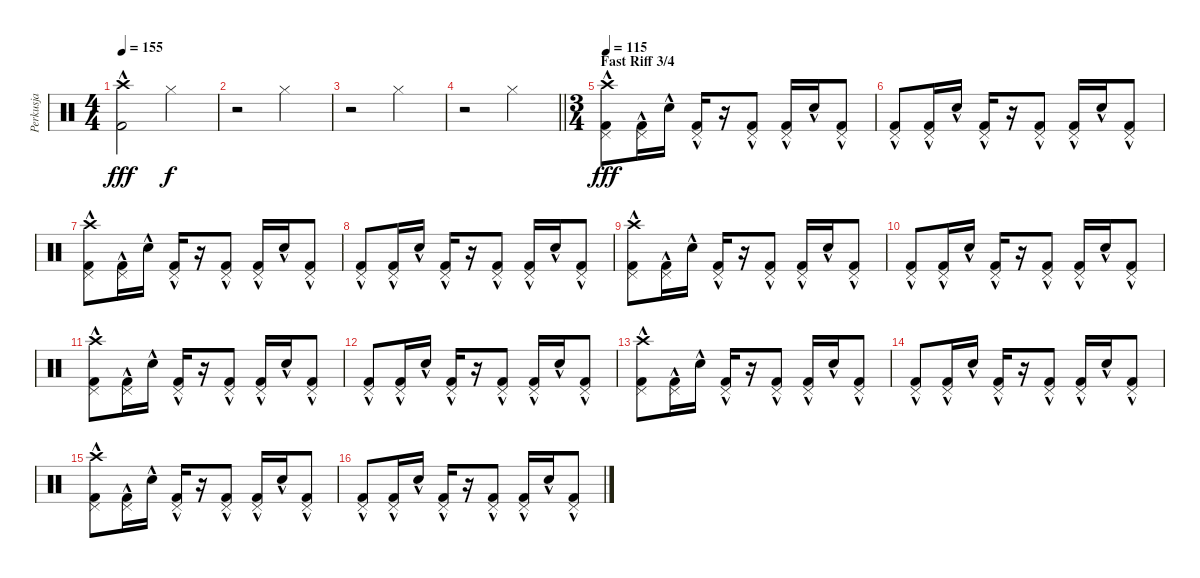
\track ("Perkusja" "Perkusja") {instrument percussion}
\staff {score}
\articulation defaults
\ts (4 4)
\tempo 155
\clef neutral
\ks c
("Crash high (hit)" "Kick (hit) 2"{hac}).2{dy fff} "Hi-Hat (closed)".2{dy f} |
r.2 "Hi-Hat (closed)".2 |
r.2 "Hi-Hat (closed)".2 |
\barLineRight lightlight
r.2 "Hi-Hat (closed)".2 |
\ts (3 4)
\section ("" "Fast Riff 3/4")
\tempo 115
("Crash high (hit)" "Pedal Hi-Hat (hit)" "Kick (hit) 2"{hac}).8{dy fff} ("Pedal Hi-Hat (hit)" "Kick (hit) 2"{hac}).16 "Electric Snare (hit)"{hac}.16 ("Pedal Hi-Hat (hit)" "Kick (hit) 2"{hac}).16 r.16 ("Pedal Hi-Hat (hit)" "Kick (hit) 2"{hac}).8 ("Pedal Hi-Hat (hit)" "Kick (hit) 2"{hac}).16 "Electric Snare (hit)"{hac}.16 ("Pedal Hi-Hat (hit)" "Kick (hit) 2"{hac}).8 |
("Pedal Hi-Hat (hit)" "Kick (hit) 2"{hac}).8 ("Pedal Hi-Hat (hit)" "Kick (hit) 2"{hac}).16 "Electric Snare (hit)"{hac}.16 ("Pedal Hi-Hat (hit)" "Kick (hit) 2"{hac}).16 r.16 ("Pedal Hi-Hat (hit)" "Kick (hit) 2"{hac}).8 ("Pedal Hi-Hat (hit)" "Kick (hit) 2"{hac}).16 "Electric Snare (hit)"{hac}.16 ("Pedal Hi-Hat (hit)" "Kick (hit) 2"{hac}).8 |
("Crash high (hit)" "Pedal Hi-Hat (hit)" "Kick (hit) 2"{hac}).8 ("Pedal Hi-Hat (hit)" "Kick (hit) 2"{hac}).16 "Electric Snare (hit)"{hac}.16 ("Pedal Hi-Hat (hit)" "Kick (hit) 2"{hac}).16 r.16 ("Pedal Hi-Hat (hit)" "Kick (hit) 2"{hac}).8 ("Pedal Hi-Hat (hit)" "Kick (hit) 2"{hac}).16 "Electric Snare (hit)"{hac}.16 ("Pedal Hi-Hat (hit)" "Kick (hit) 2"{hac}).8 |
("Pedal Hi-Hat (hit)" "Kick (hit) 2"{hac}).8 ("Pedal Hi-Hat (hit)" "Kick (hit) 2"{hac}).16 "Electric Snare (hit)"{hac}.16 ("Pedal Hi-Hat (hit)" "Kick (hit) 2"{hac}).16 r.16 ("Pedal Hi-Hat (hit)" "Kick (hit) 2"{hac}).8 ("Pedal Hi-Hat (hit)" "Kick (hit) 2"{hac}).16 "Electric Snare (hit)"{hac}.16 ("Pedal Hi-Hat (hit)" "Kick (hit) 2"{hac}).8 |
("Crash high (hit)" "Pedal Hi-Hat (hit)" "Kick (hit) 2"{hac}).8 ("Pedal Hi-Hat (hit)" "Kick (hit) 2"{hac}).16 "Electric Snare (hit)"{hac}.16 ("Pedal Hi-Hat (hit)" "Kick (hit) 2"{hac}).16 r.16 ("Pedal Hi-Hat (hit)" "Kick (hit) 2"{hac}).8 ("Pedal Hi-Hat (hit)" "Kick (hit) 2"{hac}).16 "Electric Snare (hit)"{hac}.16 ("Pedal Hi-Hat (hit)" "Kick (hit) 2"{hac}).8 |
("Pedal Hi-Hat (hit)" "Kick (hit) 2"{hac}).8 ("Pedal Hi-Hat (hit)" "Kick (hit) 2"{hac}).16 "Electric Snare (hit)"{hac}.16 ("Pedal Hi-Hat (hit)" "Kick (hit) 2"{hac}).16 r.16 ("Pedal Hi-Hat (hit)" "Kick (hit) 2"{hac}).8 ("Pedal Hi-Hat (hit)" "Kick (hit) 2"{hac}).16 "Electric Snare (hit)"{hac}.16 ("Pedal Hi-Hat (hit)" "Kick (hit) 2"{hac}).8 |
("Crash high (hit)" "Pedal Hi-Hat (hit)" "Kick (hit) 2"{hac}).8 ("Pedal Hi-Hat (hit)" "Kick (hit) 2"{hac}).16 "Electric Snare (hit)"{hac}.16 ("Pedal Hi-Hat (hit)" "Kick (hit) 2"{hac}).16 r.16 ("Pedal Hi-Hat (hit)" "Kick (hit) 2"{hac}).8 ("Pedal Hi-Hat (hit)" "Kick (hit) 2"{hac}).16 "Electric Snare (hit)"{hac}.16 ("Pedal Hi-Hat (hit)" "Kick (hit) 2"{hac}).8 |
("Pedal Hi-Hat (hit)" "Kick (hit) 2"{hac}).8 ("Pedal Hi-Hat (hit)" "Kick (hit) 2"{hac}).16 "Electric Snare (hit)"{hac}.16 ("Pedal Hi-Hat (hit)" "Kick (hit) 2"{hac}).16 r.16 ("Pedal Hi-Hat (hit)" "Kick (hit) 2"{hac}).8 ("Pedal Hi-Hat (hit)" "Kick (hit) 2"{hac}).16 "Electric Snare (hit)"{hac}.16 ("Pedal Hi-Hat (hit)" "Kick (hit) 2"{hac}).8 |
("Crash high (hit)" "Pedal Hi-Hat (hit)" "Kick (hit) 2"{hac}).8 ("Pedal Hi-Hat (hit)" "Kick (hit) 2"{hac}).16 "Electric Snare (hit)"{hac}.16 ("Pedal Hi-Hat (hit)" "Kick (hit) 2"{hac}).16 r.16 ("Pedal Hi-Hat (hit)" "Kick (hit) 2"{hac}).8 ("Pedal Hi-Hat (hit)" "Kick (hit) 2"{hac}).16 "Electric Snare (hit)"{hac}.16 ("Pedal Hi-Hat (hit)" "Kick (hit) 2"{hac}).8 |
("Pedal Hi-Hat (hit)" "Kick (hit) 2"{hac}).8 ("Pedal Hi-Hat (hit)" "Kick (hit) 2"{hac}).16 "Electric Snare (hit)"{hac}.16 ("Pedal Hi-Hat (hit)" "Kick (hit) 2"{hac}).16 r.16 ("Pedal Hi-Hat (hit)" "Kick (hit) 2"{hac}).8 ("Pedal Hi-Hat (hit)" "Kick (hit) 2"{hac}).16 "Electric Snare (hit)"{hac}.16 ("Pedal Hi-Hat (hit)" "Kick (hit) 2"{hac}).8 |
("Crash high (hit)" "Pedal Hi-Hat (hit)" "Kick (hit) 2"{hac}).8 ("Pedal Hi-Hat (hit)" "Kick (hit) 2"{hac}).16 "Electric Snare (hit)"{hac}.16 ("Pedal Hi-Hat (hit)" "Kick (hit) 2"{hac}).16 r.16 ("Pedal Hi-Hat (hit)" "Kick (hit) 2"{hac}).8 ("Pedal Hi-Hat (hit)" "Kick (hit) 2"{hac}).16 "Electric Snare (hit)"{hac}.16 ("Pedal Hi-Hat (hit)" "Kick (hit) 2"{hac}).8 |
("Pedal Hi-Hat (hit)" "Kick (hit) 2"{hac}).8 ("Pedal Hi-Hat (hit)" "Kick (hit) 2"{hac}).16 "Electric Snare (hit)"{hac}.16 ("Pedal Hi-Hat (hit)" "Kick (hit) 2"{hac}).16 r.16 ("Pedal Hi-Hat (hit)" "Kick (hit) 2"{hac}).8 ("Pedal Hi-Hat (hit)" "Kick (hit) 2"{hac}).16 "Electric Snare (hit)"{hac}.16 ("Pedal Hi-Hat (hit)" "Kick (hit) 2"{hac}).8
